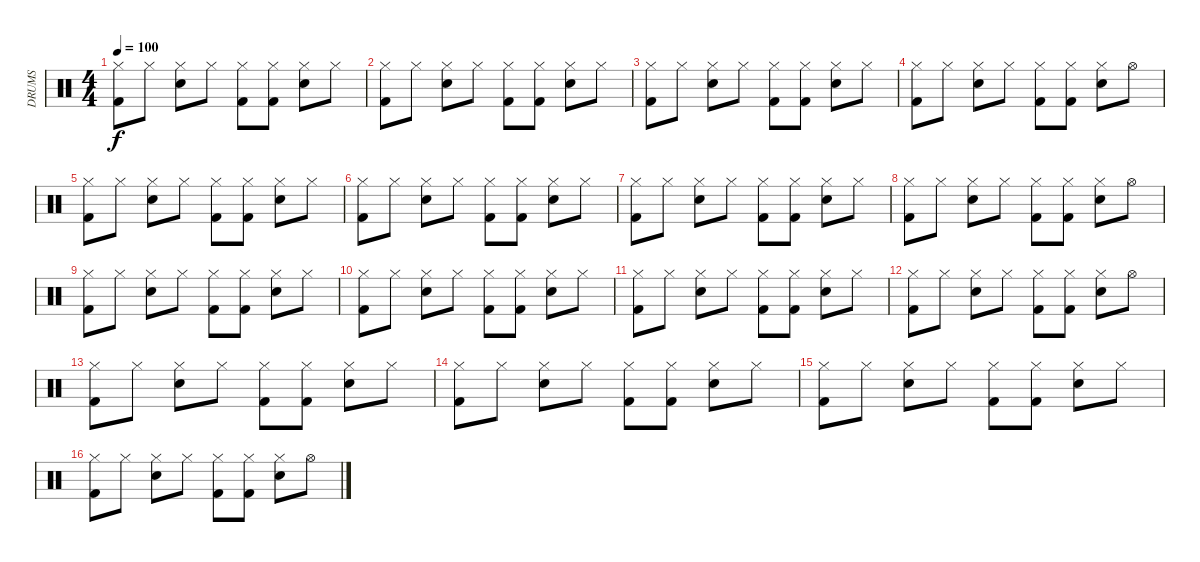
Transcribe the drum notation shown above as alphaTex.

\track ("DRUMS" "DRUMS") {instrument percussion}
\staff {score}
\articulation defaults
\ts (4 4)
\tempo 100
\clef neutral
\ks c
("Hi-Hat (closed)" "Kick (hit) 2").8{dy f} "Hi-Hat (closed)".8 ("Hi-Hat (closed)" "Snare (hit) 2").8 "Hi-Hat (closed)".8 ("Hi-Hat (closed)" "Kick (hit) 2").8 ("Hi-Hat (closed)" "Kick (hit) 2").8 ("Hi-Hat (closed)" "Snare (hit) 2").8 "Hi-Hat (closed)".8 |
("Hi-Hat (closed)" "Kick (hit) 2").8 "Hi-Hat (closed)".8 ("Hi-Hat (closed)" "Snare (hit) 2").8 "Hi-Hat (closed)".8 ("Hi-Hat (closed)" "Kick (hit) 2").8 ("Hi-Hat (closed)" "Kick (hit) 2").8 ("Hi-Hat (closed)" "Snare (hit) 2").8 "Hi-Hat (closed)".8 |
("Hi-Hat (closed)" "Kick (hit) 2").8 "Hi-Hat (closed)".8 ("Hi-Hat (closed)" "Snare (hit) 2").8 "Hi-Hat (closed)".8 ("Hi-Hat (closed)" "Kick (hit) 2").8 ("Hi-Hat (closed)" "Kick (hit) 2").8 ("Hi-Hat (closed)" "Snare (hit) 2").8 "Hi-Hat (closed)".8 |
("Hi-Hat (closed)" "Kick (hit) 2").8 "Hi-Hat (closed)".8 ("Hi-Hat (closed)" "Snare (hit) 2").8 "Hi-Hat (closed)".8 ("Hi-Hat (closed)" "Kick (hit) 2").8 ("Hi-Hat (closed)" "Kick (hit) 2").8 ("Hi-Hat (closed)" "Snare (hit) 2").8 "Hi-Hat (open)".8 |
("Hi-Hat (closed)" "Kick (hit) 2").8 "Hi-Hat (closed)".8 ("Hi-Hat (closed)" "Snare (hit) 2").8 "Hi-Hat (closed)".8 ("Hi-Hat (closed)" "Kick (hit) 2").8 ("Hi-Hat (closed)" "Kick (hit) 2").8 ("Hi-Hat (closed)" "Snare (hit) 2").8 "Hi-Hat (closed)".8 |
("Hi-Hat (closed)" "Kick (hit) 2").8 "Hi-Hat (closed)".8 ("Hi-Hat (closed)" "Snare (hit) 2").8 "Hi-Hat (closed)".8 ("Hi-Hat (closed)" "Kick (hit) 2").8 ("Hi-Hat (closed)" "Kick (hit) 2").8 ("Hi-Hat (closed)" "Snare (hit) 2").8 "Hi-Hat (closed)".8 |
("Hi-Hat (closed)" "Kick (hit) 2").8 "Hi-Hat (closed)".8 ("Hi-Hat (closed)" "Snare (hit) 2").8 "Hi-Hat (closed)".8 ("Hi-Hat (closed)" "Kick (hit) 2").8 ("Hi-Hat (closed)" "Kick (hit) 2").8 ("Hi-Hat (closed)" "Snare (hit) 2").8 "Hi-Hat (closed)".8 |
("Hi-Hat (closed)" "Kick (hit) 2").8 "Hi-Hat (closed)".8 ("Hi-Hat (closed)" "Snare (hit) 2").8 "Hi-Hat (closed)".8 ("Hi-Hat (closed)" "Kick (hit) 2").8 ("Hi-Hat (closed)" "Kick (hit) 2").8 ("Hi-Hat (closed)" "Snare (hit) 2").8 "Hi-Hat (open)".8 |
("Hi-Hat (closed)" "Kick (hit) 2").8 "Hi-Hat (closed)".8 ("Hi-Hat (closed)" "Snare (hit) 2").8 "Hi-Hat (closed)".8 ("Hi-Hat (closed)" "Kick (hit) 2").8 ("Hi-Hat (closed)" "Kick (hit) 2").8 ("Hi-Hat (closed)" "Snare (hit) 2").8 "Hi-Hat (closed)".8 |
("Hi-Hat (closed)" "Kick (hit) 2").8 "Hi-Hat (closed)".8 ("Hi-Hat (closed)" "Snare (hit) 2").8 "Hi-Hat (closed)".8 ("Hi-Hat (closed)" "Kick (hit) 2").8 ("Hi-Hat (closed)" "Kick (hit) 2").8 ("Hi-Hat (closed)" "Snare (hit) 2").8 "Hi-Hat (closed)".8 |
("Hi-Hat (closed)" "Kick (hit) 2").8 "Hi-Hat (closed)".8 ("Hi-Hat (closed)" "Snare (hit) 2").8 "Hi-Hat (closed)".8 ("Hi-Hat (closed)" "Kick (hit) 2").8 ("Hi-Hat (closed)" "Kick (hit) 2").8 ("Hi-Hat (closed)" "Snare (hit) 2").8 "Hi-Hat (closed)".8 |
("Hi-Hat (closed)" "Kick (hit) 2").8 "Hi-Hat (closed)".8 ("Hi-Hat (closed)" "Snare (hit) 2").8 "Hi-Hat (closed)".8 ("Hi-Hat (closed)" "Kick (hit) 2").8 ("Hi-Hat (closed)" "Kick (hit) 2").8 ("Hi-Hat (closed)" "Snare (hit) 2").8 "Hi-Hat (open)".8 |
("Hi-Hat (closed)" "Kick (hit) 2").8{volume 8} "Hi-Hat (closed)".8 ("Hi-Hat (closed)" "Snare (hit) 2").8 "Hi-Hat (closed)".8 ("Hi-Hat (closed)" "Kick (hit) 2").8 ("Hi-Hat (closed)" "Kick (hit) 2").8 ("Hi-Hat (closed)" "Snare (hit) 2").8 "Hi-Hat (closed)".8 |
("Hi-Hat (closed)" "Kick (hit) 2").8 "Hi-Hat (closed)".8 ("Hi-Hat (closed)" "Snare (hit) 2").8 "Hi-Hat (closed)".8 ("Hi-Hat (closed)" "Kick (hit) 2").8 ("Hi-Hat (closed)" "Kick (hit) 2").8 ("Hi-Hat (closed)" "Snare (hit) 2").8 "Hi-Hat (closed)".8 |
("Hi-Hat (closed)" "Kick (hit) 2").8{volume 0} "Hi-Hat (closed)".8 ("Hi-Hat (closed)" "Snare (hit) 2").8 "Hi-Hat (closed)".8 ("Hi-Hat (closed)" "Kick (hit) 2").8 ("Hi-Hat (closed)" "Kick (hit) 2").8 ("Hi-Hat (closed)" "Snare (hit) 2").8 "Hi-Hat (closed)".8 |
("Hi-Hat (closed)" "Kick (hit) 2").8 "Hi-Hat (closed)".8 ("Hi-Hat (closed)" "Snare (hit) 2").8 "Hi-Hat (closed)".8 ("Hi-Hat (closed)" "Kick (hit) 2").8 ("Hi-Hat (closed)" "Kick (hit) 2").8 ("Hi-Hat (closed)" "Snare (hit) 2").8 "Hi-Hat (open)".8
